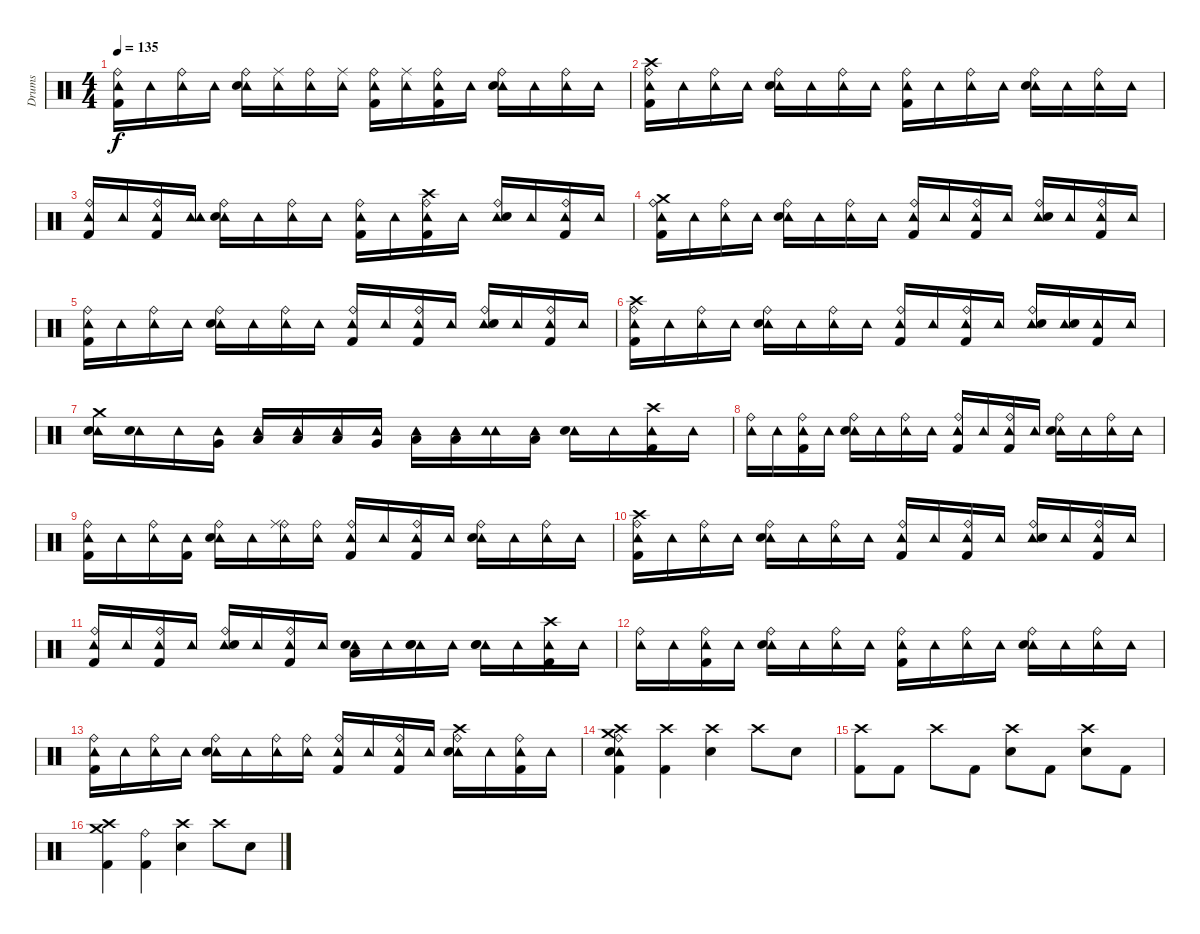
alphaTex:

\track ("Drums" "Drums") {instrument percussion}
\staff {score}
\articulation defaults
\ts (4 4)
\tempo 135
\clef neutral
\ks c
("Tambourine (hit)" "Ride (bell)" "Kick (hit) 2").16{dy f} "Tambourine (hit)".16 ("Tambourine (hit)" "Ride (bell)").16 "Tambourine (hit)".16 ("Tambourine (hit)" "Ride (bell)" "Electric Snare (hit)").16 ("Tambourine (hit)" "Ride (middle)").16 ("Tambourine (hit)" "Ride (bell)").16 ("Tambourine (hit)" "Ride (middle)").16 ("Tambourine (hit)" "Ride (bell)" "Kick (hit) 2").16 ("Tambourine (hit)" "Ride (middle)").16 ("Tambourine (hit)" "Ride (bell)" "Kick (hit) 2").16 "Tambourine (hit)".16 ("Tambourine (hit)" "Ride (bell)" "Electric Snare (hit)").16 "Tambourine (hit)".16 ("Tambourine (hit)" "Ride (bell)").16 "Tambourine (hit)".16 |
("Tambourine (hit)" "Crash high (hit)" "Ride (bell)" "Kick (hit) 2").16 "Tambourine (hit)".16 ("Tambourine (hit)" "Ride (bell)").16 "Tambourine (hit)".16 ("Tambourine (hit)" "Ride (bell)" "Electric Snare (hit)").16 "Tambourine (hit)".16 ("Tambourine (hit)" "Ride (bell)").16 "Tambourine (hit)".16 ("Tambourine (hit)" "Ride (bell)" "Kick (hit) 2").16 "Tambourine (hit)".16 ("Tambourine (hit)" "Ride (bell)").16 "Tambourine (hit)".16 ("Tambourine (hit)" "Ride (bell)" "Electric Snare (hit)").16 "Tambourine (hit)".16 ("Tambourine (hit)" "Ride (bell)").16 "Tambourine (hit)".16 |
("Tambourine (hit)" "Ride (bell)" "Kick (hit) 2").16 "Tambourine (hit)".16 ("Tambourine (hit)" "Ride (bell)" "Kick (hit) 2").16 ("Tambourine (hit)" "Tambourine (hit)").16 ("Tambourine (hit)" "Ride (bell)" "Electric Snare (hit)").16 "Tambourine (hit)".16 ("Tambourine (hit)" "Ride (bell)").16 "Tambourine (hit)".16 ("Tambourine (hit)" "Ride (bell)" "Kick (hit) 2").16 "Tambourine (hit)".16 ("Tambourine (hit)" "Crash high (hit)" "Ride (bell)" "Kick (hit) 2").16 "Tambourine (hit)".16 ("Tambourine (hit)" "Ride (bell)" "Electric Snare (hit)").16 "Tambourine (hit)".16 ("Tambourine (hit)" "Ride (bell)" "Kick (hit) 2").16 "Tambourine (hit)".16 |
("Tambourine (hit)" "Crash medium (hit)" "Ride (bell)" "Kick (hit) 2").16 "Tambourine (hit)".16 ("Tambourine (hit)" "Ride (bell)").16 "Tambourine (hit)".16 ("Tambourine (hit)" "Ride (bell)" "Electric Snare (hit)").16 "Tambourine (hit)".16 ("Tambourine (hit)" "Ride (bell)").16 "Tambourine (hit)".16 ("Tambourine (hit)" "Ride (bell)" "Kick (hit) 2").16 "Tambourine (hit)".16 ("Tambourine (hit)" "Ride (bell)" "Kick (hit) 2").16 "Tambourine (hit)".16 ("Tambourine (hit)" "Ride (bell)" "Electric Snare (hit)").16 "Tambourine (hit)".16 ("Tambourine (hit)" "Ride (bell)" "Kick (hit) 2").16 "Tambourine (hit)".16 |
("Tambourine (hit)" "Ride (bell)" "Kick (hit) 2").16 "Tambourine (hit)".16 ("Tambourine (hit)" "Ride (bell)").16 "Tambourine (hit)".16 ("Tambourine (hit)" "Ride (bell)" "Electric Snare (hit)").16 "Tambourine (hit)".16 ("Tambourine (hit)" "Ride (bell)").16 "Tambourine (hit)".16 ("Tambourine (hit)" "Ride (bell)" "Kick (hit) 2").16 "Tambourine (hit)".16 ("Tambourine (hit)" "Ride (bell)" "Kick (hit) 2").16 "Tambourine (hit)".16 ("Tambourine (hit)" "Ride (bell)" "Electric Snare (hit)").16 "Tambourine (hit)".16 ("Tambourine (hit)" "Ride (bell)" "Kick (hit) 2").16 "Tambourine (hit)".16 |
("Tambourine (hit)" "Crash high (hit)" "Ride (bell)" "Kick (hit) 2").16 "Tambourine (hit)".16 ("Tambourine (hit)" "Ride (bell)").16 "Tambourine (hit)".16 ("Tambourine (hit)" "Ride (bell)" "Electric Snare (hit)").16 "Tambourine (hit)".16 ("Tambourine (hit)" "Ride (bell)").16 "Tambourine (hit)".16 ("Tambourine (hit)" "Ride (bell)" "Kick (hit) 2").16 "Tambourine (hit)".16 ("Tambourine (hit)" "Ride (bell)" "Kick (hit) 2").16 "Tambourine (hit)".16 ("Tambourine (hit)" "Ride (bell)" "Electric Snare (hit)").16 ("Tambourine (hit)" "Electric Snare (hit)").16 ("Tambourine (hit)" "Kick (hit) 2").16 "Tambourine (hit)".16 |
("Tambourine (hit)" "Crash medium (hit)" "Electric Snare (hit)").16 ("Tambourine (hit)" "Electric Snare (hit)").16 "Tambourine (hit)".16 ("Tambourine (hit)" "Very Low Tom (hit)").16 ("Tambourine (hit)" "Low Floor Tom (hit)").16 ("Tambourine (hit)" "Low Floor Tom (hit)").16 ("Tambourine (hit)" "Low Tom (hit)").16 ("Tambourine (hit)" "Very Low Tom (hit)").16 ("Tambourine (hit)" "Low Floor Tom (hit)").16 ("Tambourine (hit)" "Low Floor Tom (hit)").16 ("Tambourine (hit)" "Tambourine (hit)").16 ("Tambourine (hit)" "Low Floor Tom (hit)").16 ("Tambourine (hit)" "Electric Snare (hit)").16 "Tambourine (hit)".16 ("Tambourine (hit)" "Crash high (hit)" "Kick (hit) 2").16 "Tambourine (hit)".16 |
("Tambourine (hit)" "Ride (bell)").16 "Tambourine (hit)".16 ("Tambourine (hit)" "Ride (bell)" "Kick (hit) 2").16 "Tambourine (hit)".16 ("Tambourine (hit)" "Ride (bell)" "Electric Snare (hit)").16 "Tambourine (hit)".16 ("Tambourine (hit)" "Ride (bell)").16 "Tambourine (hit)".16 ("Tambourine (hit)" "Ride (bell)" "Kick (hit) 2").16 "Tambourine (hit)".16 ("Tambourine (hit)" "Ride (bell)" "Kick (hit) 2").16 "Tambourine (hit)".16 ("Tambourine (hit)" "Ride (bell)" "Electric Snare (hit)").16 "Tambourine (hit)".16 ("Tambourine (hit)" "Ride (bell)").16 "Tambourine (hit)".16 |
("Tambourine (hit)" "Ride (bell)" "Kick (hit) 2").16 "Tambourine (hit)".16 ("Tambourine (hit)" "Ride (bell)").16 ("Tambourine (hit)" "Kick (hit) 2").16 ("Tambourine (hit)" "Ride (bell)" "Electric Snare (hit)").16 "Tambourine (hit)".16 ("Tambourine (hit)" "Ride (bell)" "Ride (middle)").16 ("Tambourine (hit)" "Ride (bell)").16 ("Tambourine (hit)" "Ride (bell)" "Kick (hit) 2").16 "Tambourine (hit)".16 ("Tambourine (hit)" "Ride (bell)" "Kick (hit) 2").16 "Tambourine (hit)".16 ("Tambourine (hit)" "Ride (bell)" "Electric Snare (hit)").16 "Tambourine (hit)".16 ("Tambourine (hit)" "Ride (bell)").16 "Tambourine (hit)".16 |
("Tambourine (hit)" "Crash high (hit)" "Ride (bell)" "Kick (hit) 2").16 "Tambourine (hit)".16 ("Tambourine (hit)" "Ride (bell)").16 "Tambourine (hit)".16 ("Tambourine (hit)" "Ride (bell)" "Electric Snare (hit)").16 "Tambourine (hit)".16 ("Tambourine (hit)" "Ride (bell)").16 "Tambourine (hit)".16 ("Tambourine (hit)" "Ride (bell)" "Kick (hit) 2").16 "Tambourine (hit)".16 ("Tambourine (hit)" "Ride (bell)" "Kick (hit) 2").16 "Tambourine (hit)".16 ("Tambourine (hit)" "Ride (bell)" "Electric Snare (hit)").16 "Tambourine (hit)".16 ("Tambourine (hit)" "Ride (bell)" "Kick (hit) 2").16 "Tambourine (hit)".16 |
("Tambourine (hit)" "Ride (bell)" "Kick (hit) 2").16 "Tambourine (hit)".16 ("Tambourine (hit)" "Ride (bell)" "Kick (hit) 2").16 "Tambourine (hit)".16 ("Tambourine (hit)" "Ride (bell)" "Electric Snare (hit)").16 "Tambourine (hit)".16 ("Tambourine (hit)" "Ride (bell)" "Kick (hit) 2").16 "Tambourine (hit)".16 ("Tambourine (hit)" "Low Floor Tom (hit)" "Electric Snare (hit)").16 "Tambourine (hit)".16 ("Tambourine (hit)" "Electric Snare (hit)" "Snare (hit) 2").16 "Tambourine (hit)".16 ("Tambourine (hit)" "Electric Snare (hit)" "Snare (hit) 2").16 "Tambourine (hit)".16 ("Tambourine (hit)" "Crash high (hit)" "Kick (hit) 2").16 "Tambourine (hit)".16 |
("Tambourine (hit)" "Ride (bell)").16 "Tambourine (hit)".16 ("Tambourine (hit)" "Ride (bell)" "Kick (hit) 2").16 "Tambourine (hit)".16 ("Tambourine (hit)" "Ride (bell)" "Electric Snare (hit)").16 "Tambourine (hit)".16 ("Tambourine (hit)" "Ride (bell)").16 "Tambourine (hit)".16 ("Tambourine (hit)" "Ride (bell)" "Kick (hit) 2").16 "Tambourine (hit)".16 ("Tambourine (hit)" "Ride (bell)").16 "Tambourine (hit)".16 ("Tambourine (hit)" "Ride (bell)" "Electric Snare (hit)").16 "Tambourine (hit)".16 ("Tambourine (hit)" "Ride (bell)").16 "Tambourine (hit)".16 |
("Tambourine (hit)" "Ride (bell)" "Kick (hit) 2").16 "Tambourine (hit)".16 ("Tambourine (hit)" "Ride (bell)").16 "Tambourine (hit)".16 ("Tambourine (hit)" "Ride (bell)" "Electric Snare (hit)").16 "Tambourine (hit)".16 ("Tambourine (hit)" "Ride (bell)").16 ("Tambourine (hit)" "Ride (bell)").16 ("Tambourine (hit)" "Ride (bell)" "Kick (hit) 2").16 "Tambourine (hit)".16 ("Tambourine (hit)" "Ride (bell)" "Kick (hit) 2").16 "Tambourine (hit)".16 ("Tambourine (hit)" "Crash high (hit)" "Ride (bell)" "Electric Snare (hit)").16 "Tambourine (hit)".16 ("Tambourine (hit)" "Ride (bell)" "Kick (hit) 2").16 "Tambourine (hit)".16 |
("Tambourine (hit)" "Crash high (hit)" "Crash medium (hit)" "Ride (bell)" "Snare (hit)" "Kick (hit) 2").4 ("Crash high (hit)" "Kick (hit) 2").4 ("Crash high (hit)" "Electric Snare (hit)").4 "Crash high (hit)".8 "Electric Snare (hit)".8 |
("Crash high (hit)" "Kick (hit) 2").8 "Kick (hit) 2".8 "Crash high (hit)".8 "Kick (hit) 2".8 ("Crash high (hit)" "Electric Snare (hit)").8 "Kick (hit) 2".8 ("Crash high (hit)" "Electric Snare (hit)").8 "Kick (hit) 2".8 |
("Crash high (hit)" "Crash medium (hit)" "Kick (hit) 2").4 ("Ride (bell)" "Kick (hit) 2").4 ("Crash high (hit)" "Electric Snare (hit)").4 "Crash high (hit)".8 "Electric Snare (hit)".8
